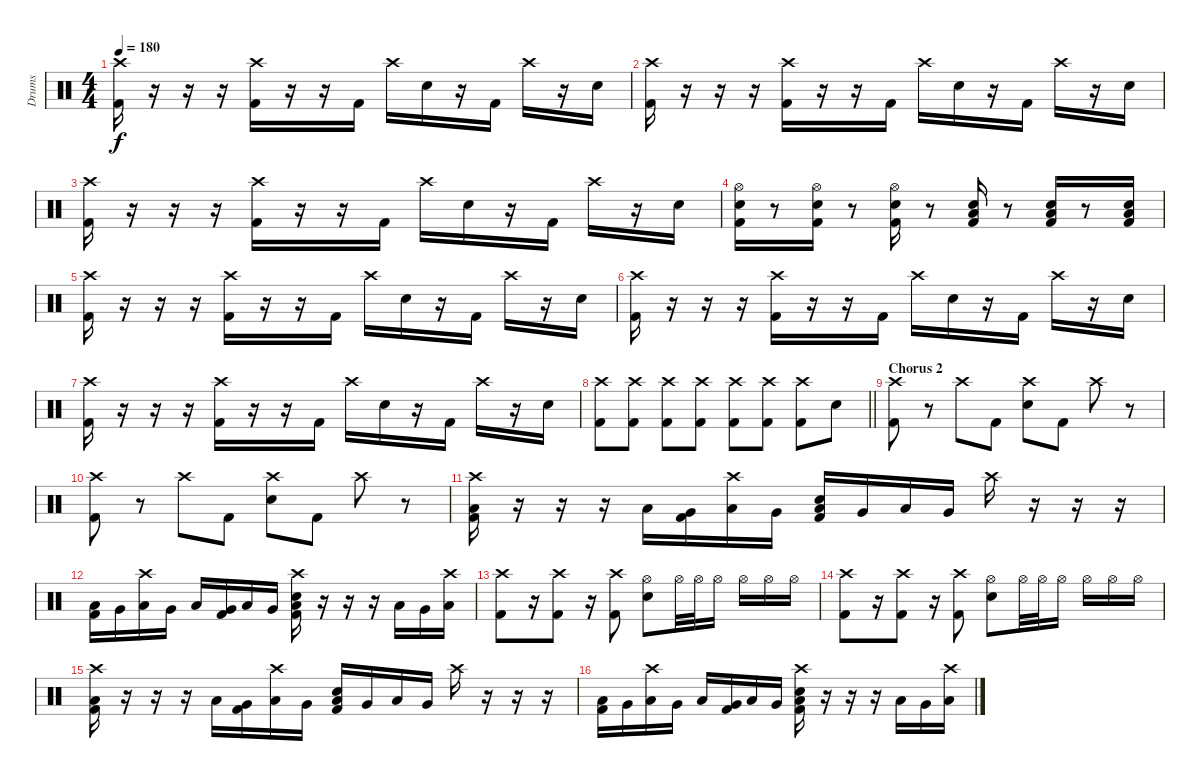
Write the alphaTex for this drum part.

\track ("Drums" "Drums") {instrument percussion}
\staff {score}
\articulation defaults
\ts (4 4)
\tempo 180
\clef neutral
\ks c
("Crash high (hit)" "Kick (hit) 2").16{dy f} r.16 r.16 r.16 ("Crash high (hit)" "Kick (hit) 2").16 r.16 r.16 "Kick (hit) 2".16 "Crash high (hit)".16 "Electric Snare (hit)".16 r.16 "Kick (hit) 2".16 "Crash high (hit)".16 r.16 "Electric Snare (hit)".16 |
("Crash high (hit)" "Kick (hit) 2").16 r.16 r.16 r.16 ("Crash high (hit)" "Kick (hit) 2").16 r.16 r.16 "Kick (hit) 2".16 "Crash high (hit)".16 "Electric Snare (hit)".16 r.16 "Kick (hit) 2".16 "Crash high (hit)".16 r.16 "Electric Snare (hit)".16 |
("Crash high (hit)" "Kick (hit) 2").16 r.16 r.16 r.16 ("Crash high (hit)" "Kick (hit) 2").16 r.16 r.16 "Kick (hit) 2".16 "Crash high (hit)".16 "Electric Snare (hit)".16 r.16 "Kick (hit) 2".16 "Crash high (hit)".16 r.16 "Electric Snare (hit)".16 |
("Hi-Hat (open)" "Electric Snare (hit)" "Kick (hit) 2").16 r.8 ("Hi-Hat (open)" "Electric Snare (hit)" "Kick (hit) 2").16 r.8 ("Hi-Hat (open)" "Electric Snare (hit)" "Kick (hit) 2").16 r.8 ("Low Floor Tom (hit)" "Electric Snare (hit)" "Kick (hit) 2").16 r.8 ("Low Floor Tom (hit)" "Electric Snare (hit)" "Kick (hit) 2").16 r.8 ("Low Floor Tom (hit)" "Electric Snare (hit)" "Kick (hit) 2").16 |
("Crash high (hit)" "Kick (hit) 2").16 r.16 r.16 r.16 ("Crash high (hit)" "Kick (hit) 2").16 r.16 r.16 "Kick (hit) 2".16 "Crash high (hit)".16 "Electric Snare (hit)".16 r.16 "Kick (hit) 2".16 "Crash high (hit)".16 r.16 "Electric Snare (hit)".16 |
("Crash high (hit)" "Kick (hit) 2").16 r.16 r.16 r.16 ("Crash high (hit)" "Kick (hit) 2").16 r.16 r.16 "Kick (hit) 2".16 "Crash high (hit)".16 "Electric Snare (hit)".16 r.16 "Kick (hit) 2".16 "Crash high (hit)".16 r.16 "Electric Snare (hit)".16 |
("Crash high (hit)" "Kick (hit) 2").16 r.16 r.16 r.16 ("Crash high (hit)" "Kick (hit) 2").16 r.16 r.16 "Kick (hit) 2".16 "Crash high (hit)".16 "Electric Snare (hit)".16 r.16 "Kick (hit) 2".16 "Crash high (hit)".16 r.16 "Electric Snare (hit)".16 |
\barLineRight lightlight
("Crash high (hit)" "Kick (hit) 2").8 ("Crash high (hit)" "Kick (hit) 2").8 ("Crash high (hit)" "Kick (hit) 2").8 ("Crash high (hit)" "Kick (hit) 2").8 ("Crash high (hit)" "Kick (hit) 2").8 ("Crash high (hit)" "Kick (hit) 2").8 ("Crash high (hit)" "Kick (hit) 2").8 "Electric Snare (hit)".8 |
\section ("" "Chorus 2")
("Crash high (hit)" "Kick (hit) 2").8 r.8 "Crash high (hit)".8 "Kick (hit) 2".8 ("Crash high (hit)" "Electric Snare (hit)").8 "Kick (hit) 2".8 "Crash high (hit)".8 r.8 |
("Crash high (hit)" "Kick (hit) 2").8 r.8 "Crash high (hit)".8 "Kick (hit) 2".8 ("Crash high (hit)" "Electric Snare (hit)").8 "Kick (hit) 2".8 "Crash high (hit)".8 r.8 |
("Crash high (hit)" "Low Floor Tom (hit)" "Kick (hit) 2").16 r.16 r.16 r.16 "Low Floor Tom (hit)".16 ("Very Low Tom (hit)" "Kick (hit) 2").16 ("Crash high (hit)" "Low Floor Tom (hit)").16 "Very Low Tom (hit)".16 ("Electric Snare (hit)" "Low Floor Tom (hit)" "Kick (hit) 2").16 "Very Low Tom (hit)".16 "Low Floor Tom (hit)".16 "Very Low Tom (hit)".16 "Crash high (hit)".16 r.16 r.16 r.16 |
("Low Floor Tom (hit)" "Kick (hit) 2").16 "Very Low Tom (hit)".16 ("Crash high (hit)" "Low Floor Tom (hit)").16 "Very Low Tom (hit)".16 "Low Floor Tom (hit)".16 ("Very Low Tom (hit)" "Kick (hit) 2").16 "Low Floor Tom (hit)".16 "Very Low Tom (hit)".16 ("Crash high (hit)" "Electric Snare (hit)" "Low Floor Tom (hit)" "Kick (hit) 2").16 r.16 r.16 r.16 "Low Floor Tom (hit)".16 "Very Low Tom (hit)".16 ("Crash high (hit)" "Low Floor Tom (hit)").16 |
("Crash high (hit)" "Kick (hit) 2").8 r.16 ("Crash high (hit)" "Kick (hit) 2").8 r.16 ("Crash high (hit)" "Kick (hit) 2").8 ("Hi-Hat (open)" "Electric Snare (hit)").8 "Hi-Hat (open)".32 "Hi-Hat (open)".32 "Hi-Hat (open)".16 "Hi-Hat (open)".16 "Hi-Hat (open)".16 "Hi-Hat (open)".16 |
("Crash high (hit)" "Kick (hit) 2").8 r.16 ("Crash high (hit)" "Kick (hit) 2").8 r.16 ("Crash high (hit)" "Kick (hit) 2").8 ("Hi-Hat (open)" "Electric Snare (hit)").8 "Hi-Hat (open)".32 "Hi-Hat (open)".32 "Hi-Hat (open)".16 "Hi-Hat (open)".16 "Hi-Hat (open)".16 "Hi-Hat (open)".16 |
("Crash high (hit)" "Low Floor Tom (hit)" "Kick (hit) 2").16 r.16 r.16 r.16 "Low Floor Tom (hit)".16 ("Very Low Tom (hit)" "Kick (hit) 2").16 ("Crash high (hit)" "Low Floor Tom (hit)").16 "Very Low Tom (hit)".16 ("Electric Snare (hit)" "Low Floor Tom (hit)" "Kick (hit) 2").16 "Very Low Tom (hit)".16 "Low Floor Tom (hit)".16 "Very Low Tom (hit)".16 "Crash high (hit)".16 r.16 r.16 r.16 |
("Low Floor Tom (hit)" "Kick (hit) 2").16 "Very Low Tom (hit)".16 ("Crash high (hit)" "Low Floor Tom (hit)").16 "Very Low Tom (hit)".16 "Low Floor Tom (hit)".16 ("Very Low Tom (hit)" "Kick (hit) 2").16 "Low Floor Tom (hit)".16 "Very Low Tom (hit)".16 ("Crash high (hit)" "Electric Snare (hit)" "Low Floor Tom (hit)" "Kick (hit) 2").16 r.16 r.16 r.16 "Low Floor Tom (hit)".16 "Very Low Tom (hit)".16 ("Crash high (hit)" "Low Floor Tom (hit)").16
